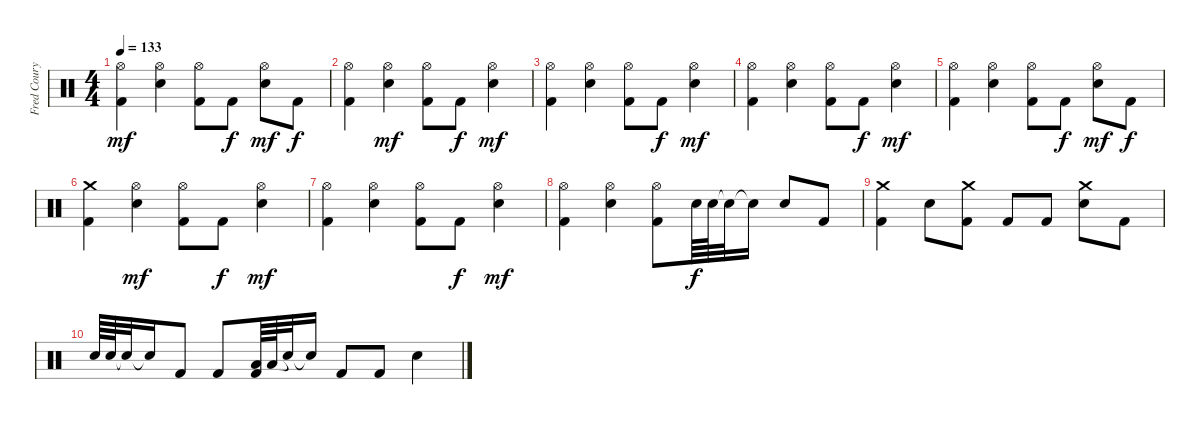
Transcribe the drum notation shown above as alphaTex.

\track ("Fred Coury" "Fred Coury") {instrument percussion}
\staff {score}
\articulation defaults
\ts (4 4)
\tempo 133
\clef neutral
\ks c
("Kick (hit) 2" "Hi-Hat (open)").4{dy mf} ("Hi-Hat (open)" "Snare (hit) 2").4 ("Kick (hit) 2" "Hi-Hat (open)").8 "Kick (hit) 2".8{dy f} ("Hi-Hat (open)" "Snare (hit) 2").8{dy mf} "Kick (hit) 2".8{dy f} |
("Kick (hit) 2" "Hi-Hat (open)").4 ("Hi-Hat (open)" "Snare (hit) 2").4{dy mf} ("Kick (hit) 2" "Hi-Hat (open)").8 "Kick (hit) 2".8{dy f} ("Hi-Hat (open)" "Snare (hit) 2").4{dy mf} |
("Kick (hit) 2" "Hi-Hat (open)").4 ("Hi-Hat (open)" "Snare (hit) 2").4 ("Kick (hit) 2" "Hi-Hat (open)").8 "Kick (hit) 2".8{dy f} ("Hi-Hat (open)" "Snare (hit) 2").4{dy mf} |
("Kick (hit) 2" "Hi-Hat (open)").4 ("Hi-Hat (open)" "Snare (hit) 2").4 ("Kick (hit) 2" "Hi-Hat (open)").8 "Kick (hit) 2".8{dy f} ("Hi-Hat (open)" "Snare (hit) 2").4{dy mf} |
("Kick (hit) 2" "Hi-Hat (open)").4 ("Hi-Hat (open)" "Snare (hit) 2").4 ("Kick (hit) 2" "Hi-Hat (open)").8 "Kick (hit) 2".8{dy f} ("Hi-Hat (open)" "Snare (hit) 2").8{dy mf} "Kick (hit) 2".8{dy f} |
("Kick (hit) 2" "Crash medium (hit)").4 ("Hi-Hat (open)" "Snare (hit) 2").4{dy mf} ("Kick (hit) 2" "Hi-Hat (open)").8 "Kick (hit) 2".8{dy f} ("Hi-Hat (open)" "Snare (hit) 2").4{dy mf} |
("Kick (hit) 2" "Hi-Hat (open)").4 ("Hi-Hat (open)" "Snare (hit) 2").4 ("Kick (hit) 2" "Hi-Hat (open)").8 "Kick (hit) 2".8{dy f} ("Hi-Hat (open)" "Snare (hit) 2").4{dy mf} |
("Kick (hit) 2" "Hi-Hat (open)").4 ("Hi-Hat (open)" "Snare (hit) 2").4 ("Kick (hit) 2" "Hi-Hat (open)").8 "Snare (hit) 2".64{dy f} "Snare (hit) 2".64 "Snare (hit)"{t}.32 "Snare (hit)"{t}.16 "Snare (hit) 2".8 "Kick (hit) 2".8 |
("Kick (hit) 2" "Crash medium (hit)").4 "Snare (hit) 2".8 ("Kick (hit) 2" "Crash medium (hit)").8 "Kick (hit) 2".8 "Kick (hit) 2".8 ("Crash medium (hit)" "Snare (hit) 2").8 "Kick (hit) 2".8 |
"Snare (hit) 2".64 "Snare (hit) 2".64 "Snare (hit)"{t}.32 "Snare (hit)"{t}.16 "Kick (hit) 2".8 "Kick (hit) 2".8 ("Kick (hit) 2" "Low Tom (hit)").64 "Low Tom (hit)".64 "Snare (hit)"{t}.32 "Snare (hit)"{t}.16 "Kick (hit) 2".8 "Kick (hit) 2".8 "Snare (hit) 2".4
